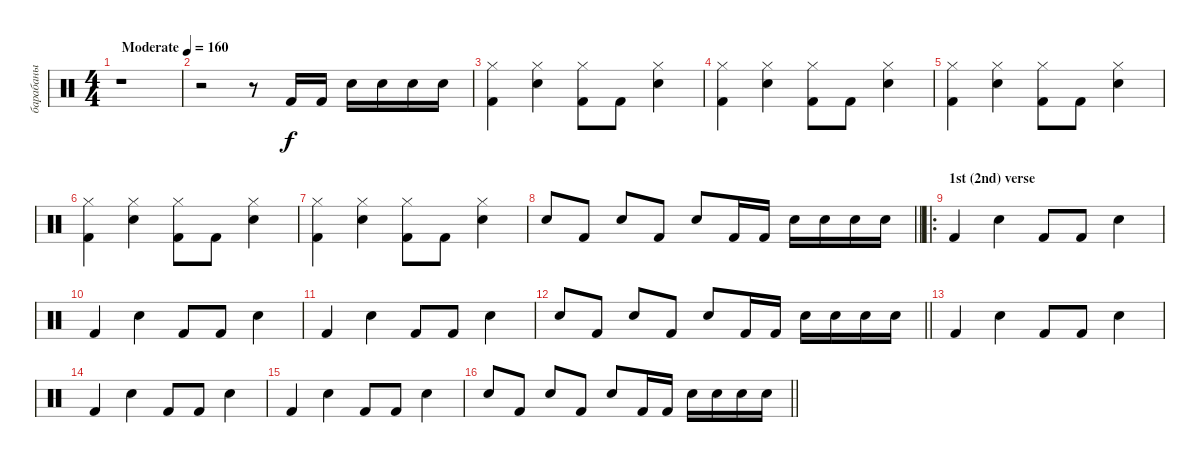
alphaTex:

\track ("барабаны" "барабаны") {instrument percussion}
\staff {score}
\articulation defaults
\ts (4 4)
\tempo (160 "Moderate")
\clef neutral
\ks c
r.1{dy f} |
r.2 r.8 "Kick (hit) 2".16 "Kick (hit) 2".16 "Snare (hit) 2".16 "Snare (hit) 2".16 "Snare (hit) 2".16 "Snare (hit) 2".16 |
("Hi-Hat (closed)" "Kick (hit) 2").4 ("Hi-Hat (closed)" "Snare (hit) 2").4 ("Hi-Hat (closed)" "Kick (hit) 2").8 "Kick (hit) 2".8 ("Hi-Hat (closed)" "Snare (hit) 2").4 |
("Hi-Hat (closed)" "Kick (hit) 2").4 ("Hi-Hat (closed)" "Snare (hit) 2").4 ("Hi-Hat (closed)" "Kick (hit) 2").8 "Kick (hit) 2".8 ("Hi-Hat (closed)" "Snare (hit) 2").4 |
("Hi-Hat (closed)" "Kick (hit) 2").4 ("Hi-Hat (closed)" "Snare (hit) 2").4 ("Hi-Hat (closed)" "Kick (hit) 2").8 "Kick (hit) 2".8 ("Hi-Hat (closed)" "Snare (hit) 2").4 |
("Hi-Hat (closed)" "Kick (hit) 2").4 ("Hi-Hat (closed)" "Snare (hit) 2").4 ("Hi-Hat (closed)" "Kick (hit) 2").8 "Kick (hit) 2".8 ("Hi-Hat (closed)" "Snare (hit) 2").4 |
("Hi-Hat (closed)" "Kick (hit) 2").4 ("Hi-Hat (closed)" "Snare (hit) 2").4 ("Hi-Hat (closed)" "Kick (hit) 2").8 "Kick (hit) 2".8 ("Hi-Hat (closed)" "Snare (hit) 2").4 |
\barLineRight lightlight "Snare (hit) 2".8 "Kick (hit) 2".8 "Snare (hit) 2".8 "Kick (hit) 2".8 "Snare (hit) 2".8 "Kick (hit) 2".16 "Kick (hit) 2".16 "Snare (hit) 2".16 "Snare (hit) 2".16 "Snare (hit) 2".16 "Snare (hit) 2".16
|
\ro
\section ("" "1st (2nd) verse")
"Kick (hit) 2".4 "Snare (hit) 2".4 "Kick (hit) 2".8 "Kick (hit) 2".8 "Snare (hit) 2".4 |
"Kick (hit) 2".4 "Snare (hit) 2".4 "Kick (hit) 2".8 "Kick (hit) 2".8 "Snare (hit) 2".4 |
"Kick (hit) 2".4 "Snare (hit) 2".4 "Kick (hit) 2".8 "Kick (hit) 2".8 "Snare (hit) 2".4 |
\barLineRight lightlight "Snare (hit) 2".8 "Kick (hit) 2".8 "Snare (hit) 2".8 "Kick (hit) 2".8 "Snare (hit) 2".8 "Kick (hit) 2".16 "Kick (hit) 2".16 "Snare (hit) 2".16 "Snare (hit) 2".16 "Snare (hit) 2".16 "Snare (hit) 2".16
|
"Kick (hit) 2".4 "Snare (hit) 2".4 "Kick (hit) 2".8 "Kick (hit) 2".8 "Snare (hit) 2".4 |
"Kick (hit) 2".4 "Snare (hit) 2".4 "Kick (hit) 2".8 "Kick (hit) 2".8 "Snare (hit) 2".4 |
"Kick (hit) 2".4 "Snare (hit) 2".4 "Kick (hit) 2".8 "Kick (hit) 2".8 "Snare (hit) 2".4 |
\barLineRight lightlight "Snare (hit) 2".8 "Kick (hit) 2".8 "Snare (hit) 2".8 "Kick (hit) 2".8 "Snare (hit) 2".8 "Kick (hit) 2".16 "Kick (hit) 2".16 "Snare (hit) 2".16 "Snare (hit) 2".16 "Snare (hit) 2".16 "Snare (hit) 2".16
